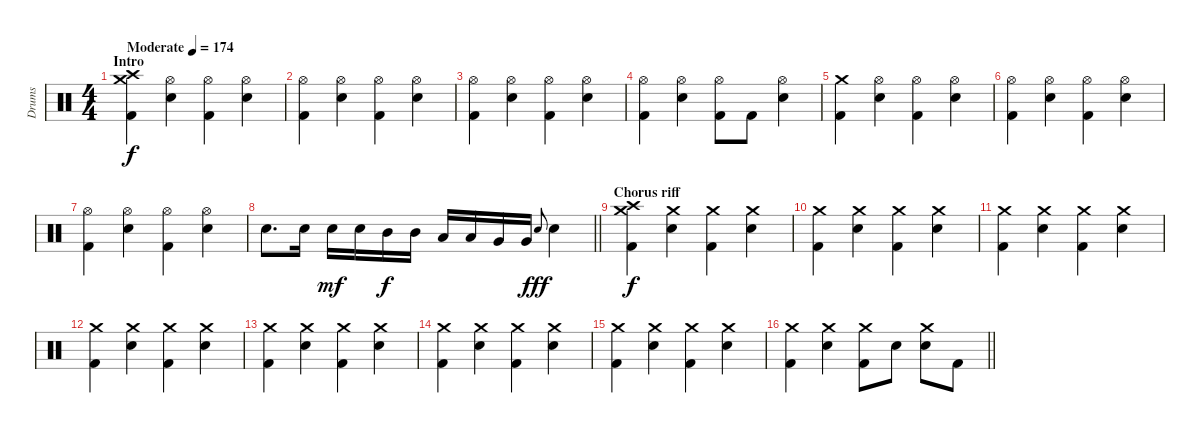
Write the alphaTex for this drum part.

\track ("Drums" "Drums") {instrument percussion}
\staff {score}
\articulation defaults
\ts (4 4)
\section ("" "Intro")
\tempo (174 "Moderate")
\clef neutral
\ks c
("Crash medium (hit)" "Crash high (hit)" "Kick (hit) 2").4{dy f} ("Hi-Hat (open)" "Electric Snare (hit)").4 ("Hi-Hat (open)" "Kick (hit) 2").4 ("Hi-Hat (open)" "Electric Snare (hit)").4 |
("Hi-Hat (open)" "Kick (hit) 2").4 ("Hi-Hat (open)" "Electric Snare (hit)").4 ("Hi-Hat (open)" "Kick (hit) 2").4 ("Hi-Hat (open)" "Electric Snare (hit)").4 |
("Hi-Hat (open)" "Kick (hit) 2").4 ("Hi-Hat (open)" "Electric Snare (hit)").4 ("Hi-Hat (open)" "Kick (hit) 2").4 ("Hi-Hat (open)" "Electric Snare (hit)").4 |
("Hi-Hat (open)" "Kick (hit) 2").4 ("Hi-Hat (open)" "Electric Snare (hit)").4 ("Hi-Hat (open)" "Kick (hit) 2").8 "Kick (hit) 2".8 ("Hi-Hat (open)" "Electric Snare (hit)").4 |
("Crash medium (hit)" "Kick (hit) 2").4 ("Hi-Hat (open)" "Electric Snare (hit)").4 ("Hi-Hat (open)" "Kick (hit) 2").4 ("Hi-Hat (open)" "Electric Snare (hit)").4 |
("Hi-Hat (open)" "Kick (hit) 2").4 ("Hi-Hat (open)" "Electric Snare (hit)").4 ("Hi-Hat (open)" "Kick (hit) 2").4 ("Hi-Hat (open)" "Electric Snare (hit)").4 |
("Hi-Hat (open)" "Kick (hit) 2").4 ("Hi-Hat (open)" "Electric Snare (hit)").4 ("Hi-Hat (open)" "Kick (hit) 2").4 ("Hi-Hat (open)" "Electric Snare (hit)").4 |
\barLineRight lightlight "Electric Snare (hit)".8{d} "Electric Snare (hit)".16 "Electric Snare (hit)".16{dy mf} "Electric Snare (hit)".16 "Mid Tom (hit)".16{dy f} "Mid Tom (hit)".16 "Low Tom (hit)".16 "Low Tom (hit)".16 "Very Low Tom (hit)".16 "Very Low Tom (hit)".16 "Electric Snare (hit)".8{gr onbeat dy fff} "Electric Snare (hit)".4
|
\section ("" "Chorus riff")
("Crash medium (hit)" "Crash high (hit)" "Kick (hit) 2").4{dy f} ("Crash medium (hit)" "Electric Snare (hit)").4 ("Crash medium (hit)" "Kick (hit) 2").4 ("Crash medium (hit)" "Electric Snare (hit)").4 |
("Crash medium (hit)" "Kick (hit) 2").4 ("Crash medium (hit)" "Electric Snare (hit)").4 ("Crash medium (hit)" "Kick (hit) 2").4 ("Crash medium (hit)" "Electric Snare (hit)").4 |
("Crash medium (hit)" "Kick (hit) 2").4 ("Crash medium (hit)" "Electric Snare (hit)").4 ("Crash medium (hit)" "Kick (hit) 2").4 ("Crash medium (hit)" "Electric Snare (hit)").4 |
("Crash medium (hit)" "Kick (hit) 2").4 ("Crash medium (hit)" "Electric Snare (hit)").4 ("Crash medium (hit)" "Kick (hit) 2").4 ("Crash medium (hit)" "Electric Snare (hit)").4 |
("Crash medium (hit)" "Kick (hit) 2").4 ("Crash medium (hit)" "Electric Snare (hit)").4 ("Crash medium (hit)" "Kick (hit) 2").4 ("Crash medium (hit)" "Electric Snare (hit)").4 |
("Crash medium (hit)" "Kick (hit) 2").4 ("Crash medium (hit)" "Electric Snare (hit)").4 ("Crash medium (hit)" "Kick (hit) 2").4 ("Crash medium (hit)" "Electric Snare (hit)").4 |
("Crash medium (hit)" "Kick (hit) 2").4 ("Crash medium (hit)" "Electric Snare (hit)").4 ("Crash medium (hit)" "Kick (hit) 2").4 ("Crash medium (hit)" "Electric Snare (hit)").4 |
\barLineRight lightlight
("Crash medium (hit)" "Kick (hit) 2").4 ("Crash medium (hit)" "Electric Snare (hit)").4 ("Crash medium (hit)" "Kick (hit) 2").8 "Electric Snare (hit)".8 ("Crash medium (hit)" "Electric Snare (hit)").8 "Kick (hit) 2".8
